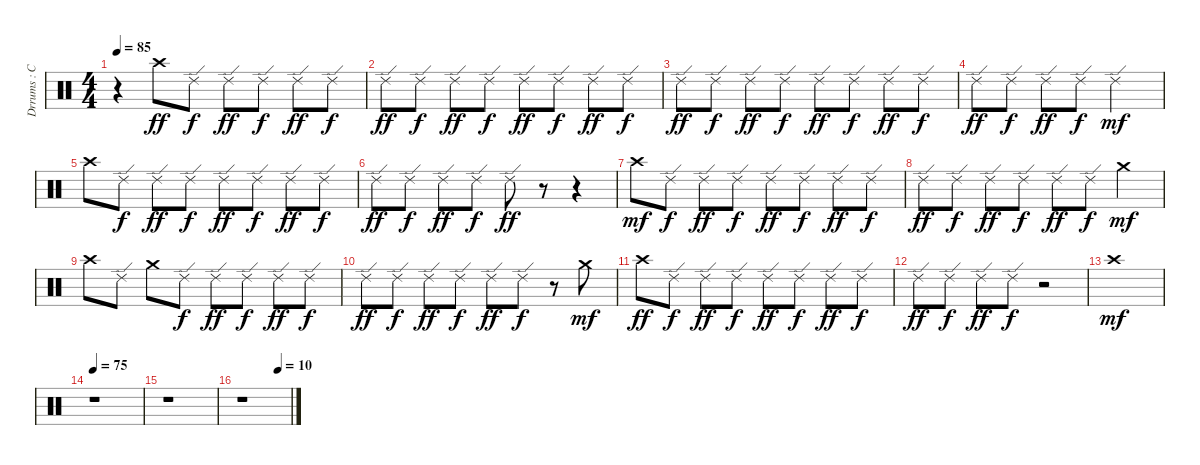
\track ("Drrums : Cymbals" "Drrums : C") {instrument percussion}
\staff {score}
\articulation defaults
\ts (4 4)
\tempo 85
\clef neutral
\ks c
r.4{dy f} "Crash high (hit)".8{dy ff} "Ride (edge) 2".8{dy f} "Ride (edge) 2".8{dy ff} "Ride (edge) 2".8{dy f} "Ride (edge) 2".8{dy ff} "Ride (edge) 2".8{dy f} |
"Ride (edge) 2".8{dy ff} "Ride (edge) 2".8{dy f} "Ride (edge) 2".8{dy ff} "Ride (edge) 2".8{dy f} "Ride (edge) 2".8{dy ff} "Ride (edge) 2".8{dy f} "Ride (edge) 2".8{dy ff} "Ride (edge) 2".8{dy f} |
"Ride (edge) 2".8{dy ff} "Ride (edge) 2".8{dy f} "Ride (edge) 2".8{dy ff} "Ride (edge) 2".8{dy f} "Ride (edge) 2".8{dy ff} "Ride (edge) 2".8{dy f} "Ride (edge) 2".8{dy ff} "Ride (edge) 2".8{dy f} |
"Ride (edge) 2".8{dy ff} "Ride (edge) 2".8{dy f} "Ride (edge) 2".8{dy ff} "Ride (edge) 2".8{dy f} "Ride (edge) 2".2{dy mf} |
"Crash high (hit)".8 "Ride (edge) 2".8{dy f} "Ride (edge) 2".8{dy ff} "Ride (edge) 2".8{dy f} "Ride (edge) 2".8{dy ff} "Ride (edge) 2".8{dy f} "Ride (edge) 2".8{dy ff} "Ride (edge) 2".8{dy f} |
"Ride (edge) 2".8{dy ff} "Ride (edge) 2".8{dy f} "Ride (edge) 2".8{dy ff} "Ride (edge) 2".8{dy f} "Ride (edge) 2".8{dy ff} r.8 r.4 |
"Crash high (hit)".8{dy mf} "Ride (edge) 2".8{dy f} "Ride (edge) 2".8{dy ff} "Ride (edge) 2".8{dy f} "Ride (edge) 2".8{dy ff} "Ride (edge) 2".8{dy f} "Ride (edge) 2".8{dy ff} "Ride (edge) 2".8{dy f} |
"Ride (edge) 2".8{dy ff} "Ride (edge) 2".8{dy f} "Ride (edge) 2".8{dy ff} "Ride (edge) 2".8{dy f} "Ride (edge) 2".8{dy ff} "Ride (edge) 2".8{dy f} "Crash medium (hit)".4{dy mf} |
"Crash high (hit)".8 "Ride (edge) 2".8 "Crash medium (hit)".8 "Ride (edge) 2".8{dy f} "Ride (edge) 2".8{dy ff} "Ride (edge) 2".8{dy f} "Ride (edge) 2".8{dy ff} "Ride (edge) 2".8{dy f} |
"Ride (edge) 2".8{dy ff} "Ride (edge) 2".8{dy f} "Ride (edge) 2".8{dy ff} "Ride (edge) 2".8{dy f} "Ride (edge) 2".8{dy ff} "Ride (edge) 2".8{dy f} r.8 "Crash medium (hit)".8{dy mf} |
"Crash high (hit)".8{dy ff} "Ride (edge) 2".8{dy f} "Ride (edge) 2".8{dy ff} "Ride (edge) 2".8{dy f} "Ride (edge) 2".8{dy ff} "Ride (edge) 2".8{dy f} "Ride (edge) 2".8{dy ff} "Ride (edge) 2".8{dy f} |
"Ride (edge) 2".8{dy ff} "Ride (edge) 2".8{dy f} "Ride (edge) 2".8{dy ff} "Ride (edge) 2".8{dy f} r.2 |
"Crash high (hit)".1{dy mf} |
\tempo 75
r.1 |
r.1 |
\tempo (10 0.75)
r.1
